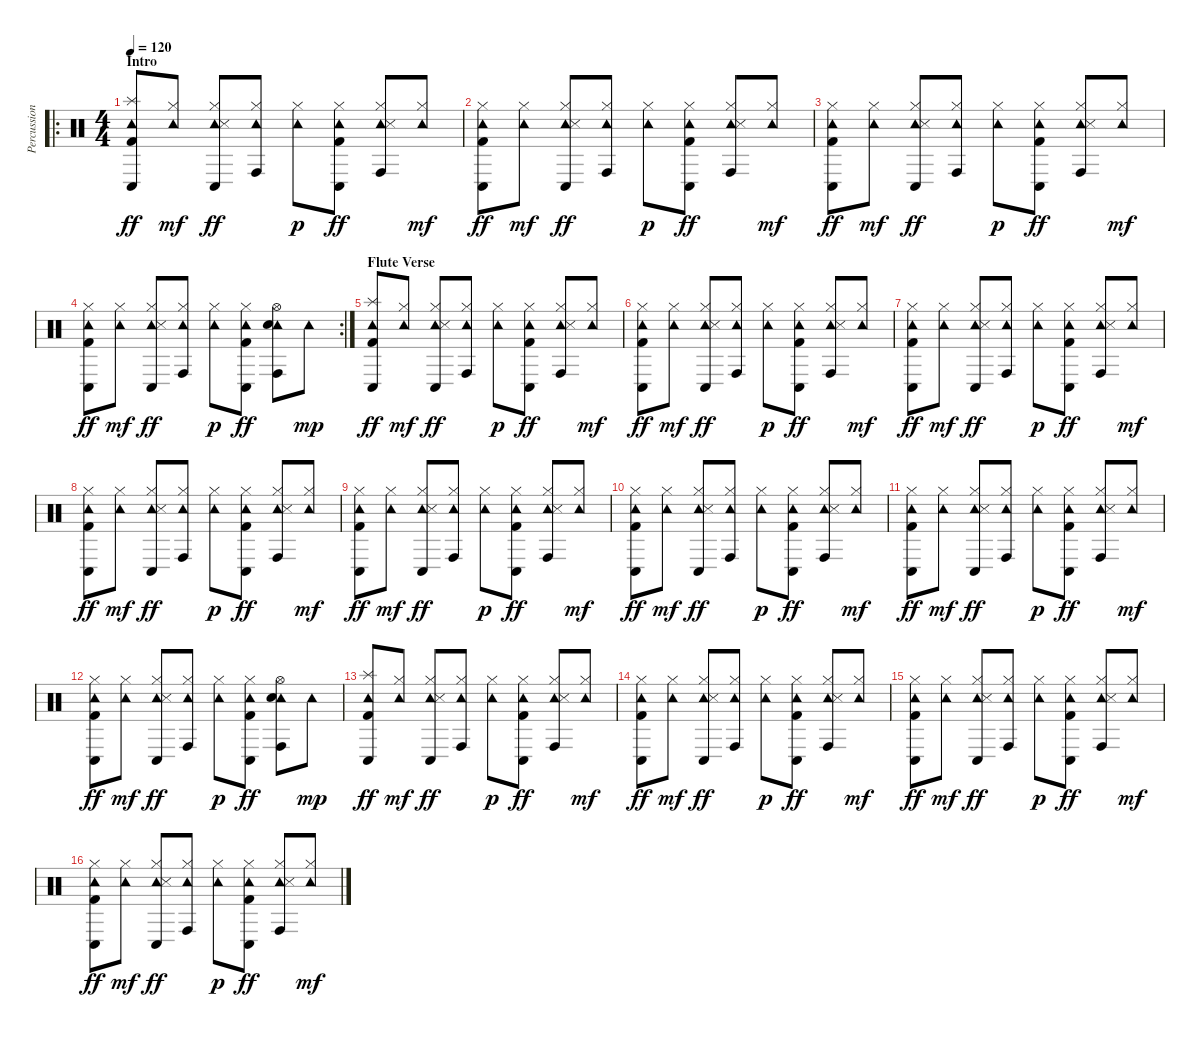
\track ("Percussion" "Percussion") {instrument percussion}
\staff {score}
\articulation defaults
\ro
\ts (4 4)
\section ("" "Intro")
\tempo 120
\clef neutral
\ks c
("Kick (hit) 2" "Splash (hit)" "Tambourine (hit)" "Conga low (hit)").8{dy ff} ("Tambourine (hit)" "Hi-Hat (closed)").8{dy mf} ("Tambourine (hit)" "Snare (side stick) 3" "Hi-Hat (closed)" "Conga low (hit)").8{dy ff} ("Tambourine (hit)" "Hi-Hat (closed)" "Conga high (hit)").8 ("Tambourine (hit)" "Hi-Hat (closed)").8{dy p} ("Kick (hit) 2" "Tambourine (hit)" "Hi-Hat (closed)" "Conga low (hit)").8{dy ff} ("Tambourine (hit)" "Snare (side stick) 3" "Hi-Hat (closed)" "Conga high (hit)").8 ("Tambourine (hit)" "Hi-Hat (closed)").8{dy mf} |
("Kick (hit) 2" "Tambourine (hit)" "Hi-Hat (closed)" "Conga low (hit)").8{dy ff} ("Tambourine (hit)" "Hi-Hat (closed)").8{dy mf} ("Tambourine (hit)" "Snare (side stick) 3" "Hi-Hat (closed)" "Conga low (hit)").8{dy ff} ("Tambourine (hit)" "Hi-Hat (closed)" "Conga high (hit)").8 ("Tambourine (hit)" "Hi-Hat (closed)").8{dy p} ("Kick (hit) 2" "Tambourine (hit)" "Hi-Hat (closed)" "Conga low (hit)").8{dy ff} ("Tambourine (hit)" "Snare (side stick) 3" "Hi-Hat (closed)" "Conga high (hit)").8 ("Tambourine (hit)" "Hi-Hat (closed)").8{dy mf} |
("Kick (hit) 2" "Tambourine (hit)" "Hi-Hat (closed)" "Conga low (hit)").8{dy ff} ("Tambourine (hit)" "Hi-Hat (closed)").8{dy mf} ("Tambourine (hit)" "Snare (side stick) 3" "Hi-Hat (closed)" "Conga low (hit)").8{dy ff} ("Tambourine (hit)" "Hi-Hat (closed)" "Conga high (hit)").8 ("Tambourine (hit)" "Hi-Hat (closed)").8{dy p} ("Kick (hit) 2" "Tambourine (hit)" "Hi-Hat (closed)" "Conga low (hit)").8{dy ff} ("Tambourine (hit)" "Snare (side stick) 3" "Hi-Hat (closed)" "Conga high (hit)").8 ("Tambourine (hit)" "Hi-Hat (closed)").8{dy mf} |
\rc 2
("Kick (hit) 2" "Tambourine (hit)" "Hi-Hat (closed)" "Conga low (hit)").8{dy ff} ("Tambourine (hit)" "Hi-Hat (closed)").8{dy mf} ("Tambourine (hit)" "Snare (side stick) 3" "Hi-Hat (closed)" "Conga low (hit)").8{dy ff} ("Tambourine (hit)" "Hi-Hat (closed)" "Conga high (hit)").8 ("Tambourine (hit)" "Hi-Hat (closed)").8{dy p} ("Kick (hit) 2" "Tambourine (hit)" "Hi-Hat (closed)" "Conga low (hit)").8{dy ff} ("Tambourine (hit)" "Snare (hit) 2" "Hi-Hat (open)" "Conga high (hit)").8 "Tambourine (hit)".8{dy mp} |
\section ("" "Flute Verse")
("Kick (hit) 2" "Splash (hit)" "Tambourine (hit)" "Conga low (hit)").8{dy ff} ("Tambourine (hit)" "Hi-Hat (closed)").8{dy mf} ("Tambourine (hit)" "Snare (side stick) 3" "Hi-Hat (closed)" "Conga low (hit)").8{dy ff} ("Tambourine (hit)" "Hi-Hat (closed)" "Conga high (hit)").8 ("Tambourine (hit)" "Hi-Hat (closed)").8{dy p} ("Kick (hit) 2" "Tambourine (hit)" "Hi-Hat (closed)" "Conga low (hit)").8{dy ff} ("Tambourine (hit)" "Snare (side stick) 3" "Hi-Hat (closed)" "Conga high (hit)").8 ("Tambourine (hit)" "Hi-Hat (closed)").8{dy mf} |
("Kick (hit) 2" "Tambourine (hit)" "Hi-Hat (closed)" "Conga low (hit)").8{dy ff} ("Tambourine (hit)" "Hi-Hat (closed)").8{dy mf} ("Tambourine (hit)" "Snare (side stick) 3" "Hi-Hat (closed)" "Conga low (hit)").8{dy ff} ("Tambourine (hit)" "Hi-Hat (closed)" "Conga high (hit)").8 ("Tambourine (hit)" "Hi-Hat (closed)").8{dy p} ("Kick (hit) 2" "Tambourine (hit)" "Hi-Hat (closed)" "Conga low (hit)").8{dy ff} ("Tambourine (hit)" "Snare (side stick) 3" "Hi-Hat (closed)" "Conga high (hit)").8 ("Tambourine (hit)" "Hi-Hat (closed)").8{dy mf} |
("Kick (hit) 2" "Tambourine (hit)" "Hi-Hat (closed)" "Conga low (hit)").8{dy ff} ("Tambourine (hit)" "Hi-Hat (closed)").8{dy mf} ("Tambourine (hit)" "Snare (side stick) 3" "Hi-Hat (closed)" "Conga low (hit)").8{dy ff} ("Tambourine (hit)" "Hi-Hat (closed)" "Conga high (hit)").8 ("Tambourine (hit)" "Hi-Hat (closed)").8{dy p} ("Kick (hit) 2" "Tambourine (hit)" "Hi-Hat (closed)" "Conga low (hit)").8{dy ff} ("Tambourine (hit)" "Snare (side stick) 3" "Hi-Hat (closed)" "Conga high (hit)").8 ("Tambourine (hit)" "Hi-Hat (closed)").8{dy mf} |
("Kick (hit) 2" "Tambourine (hit)" "Hi-Hat (closed)" "Conga low (hit)").8{dy ff} ("Tambourine (hit)" "Hi-Hat (closed)").8{dy mf} ("Tambourine (hit)" "Snare (side stick) 3" "Hi-Hat (closed)" "Conga low (hit)").8{dy ff} ("Tambourine (hit)" "Hi-Hat (closed)" "Conga high (hit)").8 ("Tambourine (hit)" "Hi-Hat (closed)").8{dy p} ("Kick (hit) 2" "Tambourine (hit)" "Hi-Hat (closed)" "Conga low (hit)").8{dy ff} ("Tambourine (hit)" "Snare (side stick) 3" "Hi-Hat (closed)" "Conga high (hit)").8 ("Tambourine (hit)" "Hi-Hat (closed)").8{dy mf} |
("Kick (hit) 2" "Tambourine (hit)" "Hi-Hat (closed)" "Conga low (hit)").8{dy ff} ("Tambourine (hit)" "Hi-Hat (closed)").8{dy mf} ("Tambourine (hit)" "Snare (side stick) 3" "Hi-Hat (closed)" "Conga low (hit)").8{dy ff} ("Tambourine (hit)" "Hi-Hat (closed)" "Conga high (hit)").8 ("Tambourine (hit)" "Hi-Hat (closed)").8{dy p} ("Kick (hit) 2" "Tambourine (hit)" "Hi-Hat (closed)" "Conga low (hit)").8{dy ff} ("Tambourine (hit)" "Snare (side stick) 3" "Hi-Hat (closed)" "Conga high (hit)").8 ("Tambourine (hit)" "Hi-Hat (closed)").8{dy mf} |
("Kick (hit) 2" "Tambourine (hit)" "Hi-Hat (closed)" "Conga low (hit)").8{dy ff} ("Tambourine (hit)" "Hi-Hat (closed)").8{dy mf} ("Tambourine (hit)" "Snare (side stick) 3" "Hi-Hat (closed)" "Conga low (hit)").8{dy ff} ("Tambourine (hit)" "Hi-Hat (closed)" "Conga high (hit)").8 ("Tambourine (hit)" "Hi-Hat (closed)").8{dy p} ("Kick (hit) 2" "Tambourine (hit)" "Hi-Hat (closed)" "Conga low (hit)").8{dy ff} ("Tambourine (hit)" "Snare (side stick) 3" "Hi-Hat (closed)" "Conga high (hit)").8 ("Tambourine (hit)" "Hi-Hat (closed)").8{dy mf} |
("Kick (hit) 2" "Tambourine (hit)" "Hi-Hat (closed)" "Conga low (hit)").8{dy ff} ("Tambourine (hit)" "Hi-Hat (closed)").8{dy mf} ("Tambourine (hit)" "Snare (side stick) 3" "Hi-Hat (closed)" "Conga low (hit)").8{dy ff} ("Tambourine (hit)" "Hi-Hat (closed)" "Conga high (hit)").8 ("Tambourine (hit)" "Hi-Hat (closed)").8{dy p} ("Kick (hit) 2" "Tambourine (hit)" "Hi-Hat (closed)" "Conga low (hit)").8{dy ff} ("Tambourine (hit)" "Snare (side stick) 3" "Hi-Hat (closed)" "Conga high (hit)").8 ("Tambourine (hit)" "Hi-Hat (closed)").8{dy mf} |
("Kick (hit) 2" "Tambourine (hit)" "Hi-Hat (closed)" "Conga low (hit)").8{dy ff} ("Tambourine (hit)" "Hi-Hat (closed)").8{dy mf} ("Tambourine (hit)" "Snare (side stick) 3" "Hi-Hat (closed)" "Conga low (hit)").8{dy ff} ("Tambourine (hit)" "Hi-Hat (closed)" "Conga high (hit)").8 ("Tambourine (hit)" "Hi-Hat (closed)").8{dy p} ("Kick (hit) 2" "Tambourine (hit)" "Hi-Hat (closed)" "Conga low (hit)").8{dy ff} ("Tambourine (hit)" "Snare (hit) 2" "Hi-Hat (open)" "Conga high (hit)").8 "Tambourine (hit)".8{dy mp} |
("Kick (hit) 2" "Splash (hit)" "Tambourine (hit)" "Conga low (hit)").8{dy ff} ("Tambourine (hit)" "Hi-Hat (closed)").8{dy mf} ("Tambourine (hit)" "Snare (side stick) 3" "Hi-Hat (closed)" "Conga low (hit)").8{dy ff} ("Tambourine (hit)" "Hi-Hat (closed)" "Conga high (hit)").8 ("Tambourine (hit)" "Hi-Hat (closed)").8{dy p} ("Kick (hit) 2" "Tambourine (hit)" "Hi-Hat (closed)" "Conga low (hit)").8{dy ff} ("Tambourine (hit)" "Snare (side stick) 3" "Hi-Hat (closed)" "Conga high (hit)").8 ("Tambourine (hit)" "Hi-Hat (closed)").8{dy mf} |
("Kick (hit) 2" "Tambourine (hit)" "Hi-Hat (closed)" "Conga low (hit)").8{dy ff} ("Tambourine (hit)" "Hi-Hat (closed)").8{dy mf} ("Tambourine (hit)" "Snare (side stick) 3" "Hi-Hat (closed)" "Conga low (hit)").8{dy ff} ("Tambourine (hit)" "Hi-Hat (closed)" "Conga high (hit)").8 ("Tambourine (hit)" "Hi-Hat (closed)").8{dy p} ("Kick (hit) 2" "Tambourine (hit)" "Hi-Hat (closed)" "Conga low (hit)").8{dy ff} ("Tambourine (hit)" "Snare (side stick) 3" "Hi-Hat (closed)" "Conga high (hit)").8 ("Tambourine (hit)" "Hi-Hat (closed)").8{dy mf} |
("Kick (hit) 2" "Tambourine (hit)" "Hi-Hat (closed)" "Conga low (hit)").8{dy ff} ("Tambourine (hit)" "Hi-Hat (closed)").8{dy mf} ("Tambourine (hit)" "Snare (side stick) 3" "Hi-Hat (closed)" "Conga low (hit)").8{dy ff} ("Tambourine (hit)" "Hi-Hat (closed)" "Conga high (hit)").8 ("Tambourine (hit)" "Hi-Hat (closed)").8{dy p} ("Kick (hit) 2" "Tambourine (hit)" "Hi-Hat (closed)" "Conga low (hit)").8{dy ff} ("Tambourine (hit)" "Snare (side stick) 3" "Hi-Hat (closed)" "Conga high (hit)").8 ("Tambourine (hit)" "Hi-Hat (closed)").8{dy mf} |
("Kick (hit) 2" "Tambourine (hit)" "Hi-Hat (closed)" "Conga low (hit)").8{dy ff} ("Tambourine (hit)" "Hi-Hat (closed)").8{dy mf} ("Tambourine (hit)" "Snare (side stick) 3" "Hi-Hat (closed)" "Conga low (hit)").8{dy ff} ("Tambourine (hit)" "Hi-Hat (closed)" "Conga high (hit)").8 ("Tambourine (hit)" "Hi-Hat (closed)").8{dy p} ("Kick (hit) 2" "Tambourine (hit)" "Hi-Hat (closed)" "Conga low (hit)").8{dy ff} ("Tambourine (hit)" "Snare (side stick) 3" "Hi-Hat (closed)" "Conga high (hit)").8 ("Tambourine (hit)" "Hi-Hat (closed)").8{dy mf}
